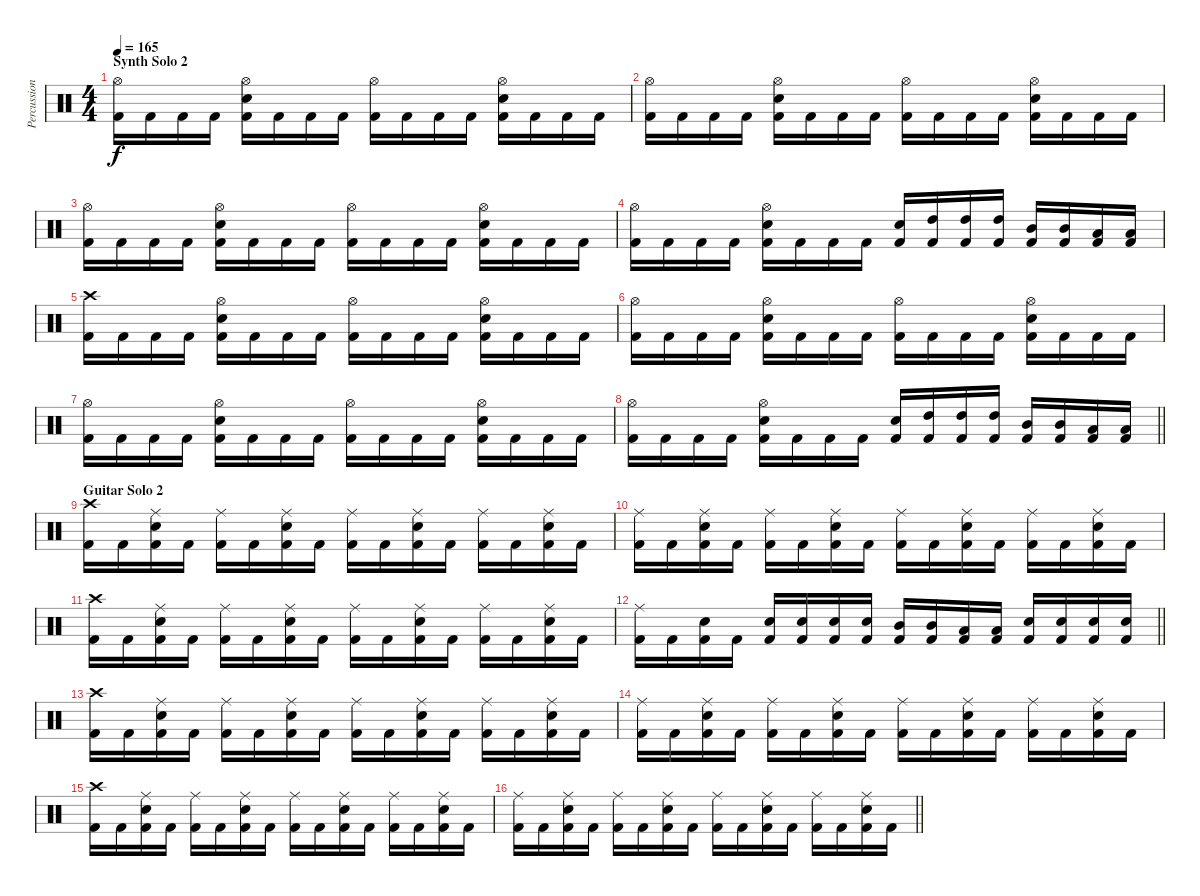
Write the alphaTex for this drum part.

\track ("Percussion" "Percussion") {instrument percussion}
\staff {score}
\articulation defaults
\ts (4 4)
\section ("" "Synth Solo 2")
\tempo 165
\clef neutral
\ks c
("Hi-Hat (open)" "Kick (hit) 2").16{dy f} "Kick (hit) 2".16 "Kick (hit) 2".16 "Kick (hit) 2".16 ("Hi-Hat (open)" "Snare (hit) 2" "Kick (hit) 2").16 "Kick (hit) 2".16 "Kick (hit) 2".16 "Kick (hit) 2".16 ("Hi-Hat (open)" "Kick (hit) 2").16 "Kick (hit) 2".16 "Kick (hit) 2".16 "Kick (hit) 2".16 ("Hi-Hat (open)" "Snare (hit) 2" "Kick (hit) 2").16 "Kick (hit) 2".16 "Kick (hit) 2".16 "Kick (hit) 2".16 |
("Hi-Hat (open)" "Kick (hit) 2").16 "Kick (hit) 2".16 "Kick (hit) 2".16 "Kick (hit) 2".16 ("Hi-Hat (open)" "Snare (hit) 2" "Kick (hit) 2").16 "Kick (hit) 2".16 "Kick (hit) 2".16 "Kick (hit) 2".16 ("Hi-Hat (open)" "Kick (hit) 2").16 "Kick (hit) 2".16 "Kick (hit) 2".16 "Kick (hit) 2".16 ("Hi-Hat (open)" "Snare (hit) 2" "Kick (hit) 2").16 "Kick (hit) 2".16 "Kick (hit) 2".16 "Kick (hit) 2".16 |
("Hi-Hat (open)" "Kick (hit) 2").16 "Kick (hit) 2".16 "Kick (hit) 2".16 "Kick (hit) 2".16 ("Hi-Hat (open)" "Snare (hit) 2" "Kick (hit) 2").16 "Kick (hit) 2".16 "Kick (hit) 2".16 "Kick (hit) 2".16 ("Hi-Hat (open)" "Kick (hit) 2").16 "Kick (hit) 2".16 "Kick (hit) 2".16 "Kick (hit) 2".16 ("Hi-Hat (open)" "Snare (hit) 2" "Kick (hit) 2").16 "Kick (hit) 2".16 "Kick (hit) 2".16 "Kick (hit) 2".16 |
("Hi-Hat (open)" "Kick (hit) 2").16 "Kick (hit) 2".16 "Kick (hit) 2".16 "Kick (hit) 2".16 ("Hi-Hat (open)" "Snare (hit) 2" "Kick (hit) 2").16 "Kick (hit) 2".16 "Kick (hit) 2".16 "Kick (hit) 2".16 ("Snare (hit) 2" "Kick (hit) 2").16 ("High Tom (hit)" "Kick (hit) 2").16 ("High Tom (hit)" "Kick (hit) 2").16 ("High Tom (hit)" "Kick (hit) 2").16 ("Mid Tom (hit)" "Kick (hit) 2").16 ("Mid Tom (hit)" "Kick (hit) 2").16 ("Low Tom (hit)" "Kick (hit) 2").16 ("Low Tom (hit)" "Kick (hit) 2").16 |
("Crash high (hit)" "Kick (hit) 2").16 "Kick (hit) 2".16 "Kick (hit) 2".16 "Kick (hit) 2".16 ("Hi-Hat (open)" "Snare (hit) 2" "Kick (hit) 2").16 "Kick (hit) 2".16 "Kick (hit) 2".16 "Kick (hit) 2".16 ("Hi-Hat (open)" "Kick (hit) 2").16 "Kick (hit) 2".16 "Kick (hit) 2".16 "Kick (hit) 2".16 ("Hi-Hat (open)" "Snare (hit) 2" "Kick (hit) 2").16 "Kick (hit) 2".16 "Kick (hit) 2".16 "Kick (hit) 2".16 |
("Hi-Hat (open)" "Kick (hit) 2").16 "Kick (hit) 2".16 "Kick (hit) 2".16 "Kick (hit) 2".16 ("Hi-Hat (open)" "Snare (hit) 2" "Kick (hit) 2").16 "Kick (hit) 2".16 "Kick (hit) 2".16 "Kick (hit) 2".16 ("Hi-Hat (open)" "Kick (hit) 2").16 "Kick (hit) 2".16 "Kick (hit) 2".16 "Kick (hit) 2".16 ("Hi-Hat (open)" "Snare (hit) 2" "Kick (hit) 2").16 "Kick (hit) 2".16 "Kick (hit) 2".16 "Kick (hit) 2".16 |
("Hi-Hat (open)" "Kick (hit) 2").16 "Kick (hit) 2".16 "Kick (hit) 2".16 "Kick (hit) 2".16 ("Hi-Hat (open)" "Snare (hit) 2" "Kick (hit) 2").16 "Kick (hit) 2".16 "Kick (hit) 2".16 "Kick (hit) 2".16 ("Hi-Hat (open)" "Kick (hit) 2").16 "Kick (hit) 2".16 "Kick (hit) 2".16 "Kick (hit) 2".16 ("Hi-Hat (open)" "Snare (hit) 2" "Kick (hit) 2").16 "Kick (hit) 2".16 "Kick (hit) 2".16 "Kick (hit) 2".16 |
\barLineRight lightlight
("Hi-Hat (open)" "Kick (hit) 2").16 "Kick (hit) 2".16 "Kick (hit) 2".16 "Kick (hit) 2".16 ("Hi-Hat (open)" "Snare (hit) 2" "Kick (hit) 2").16 "Kick (hit) 2".16 "Kick (hit) 2".16 "Kick (hit) 2".16 ("Snare (hit) 2" "Kick (hit) 2").16 ("High Tom (hit)" "Kick (hit) 2").16 ("High Tom (hit)" "Kick (hit) 2").16 ("High Tom (hit)" "Kick (hit) 2").16 ("Mid Tom (hit)" "Kick (hit) 2").16 ("Mid Tom (hit)" "Kick (hit) 2").16 ("Low Tom (hit)" "Kick (hit) 2").16 ("Low Tom (hit)" "Kick (hit) 2").16 |
\section ("" "Guitar Solo 2")
("Crash high (hit)" "Kick (hit) 2").16 "Kick (hit) 2".16 ("Ride (middle)" "Snare (hit) 2" "Kick (hit) 2").16 "Kick (hit) 2".16 ("Ride (middle)" "Kick (hit) 2").16 "Kick (hit) 2".16 ("Ride (middle)" "Snare (hit) 2" "Kick (hit) 2").16 "Kick (hit) 2".16 ("Ride (middle)" "Kick (hit) 2").16 "Kick (hit) 2".16 ("Ride (middle)" "Snare (hit) 2" "Kick (hit) 2").16 "Kick (hit) 2".16 ("Ride (middle)" "Kick (hit) 2").16 "Kick (hit) 2".16 ("Ride (middle)" "Snare (hit) 2" "Kick (hit) 2").16 "Kick (hit) 2".16 |
("Ride (middle)" "Kick (hit) 2").16 "Kick (hit) 2".16 ("Ride (middle)" "Snare (hit) 2" "Kick (hit) 2").16 "Kick (hit) 2".16 ("Ride (middle)" "Kick (hit) 2").16 "Kick (hit) 2".16 ("Ride (middle)" "Snare (hit) 2" "Kick (hit) 2").16 "Kick (hit) 2".16 ("Ride (middle)" "Kick (hit) 2").16 "Kick (hit) 2".16 ("Ride (middle)" "Snare (hit) 2" "Kick (hit) 2").16 "Kick (hit) 2".16 ("Ride (middle)" "Kick (hit) 2").16 "Kick (hit) 2".16 ("Ride (middle)" "Snare (hit) 2" "Kick (hit) 2").16 "Kick (hit) 2".16 |
("Crash high (hit)" "Kick (hit) 2").16 "Kick (hit) 2".16 ("Ride (middle)" "Snare (hit) 2" "Kick (hit) 2").16 "Kick (hit) 2".16 ("Ride (middle)" "Kick (hit) 2").16 "Kick (hit) 2".16 ("Ride (middle)" "Snare (hit) 2" "Kick (hit) 2").16 "Kick (hit) 2".16 ("Ride (middle)" "Kick (hit) 2").16 "Kick (hit) 2".16 ("Ride (middle)" "Snare (hit) 2" "Kick (hit) 2").16 "Kick (hit) 2".16 ("Ride (middle)" "Kick (hit) 2").16 "Kick (hit) 2".16 ("Ride (middle)" "Snare (hit) 2" "Kick (hit) 2").16 "Kick (hit) 2".16 |
\barLineRight lightlight
("Ride (middle)" "Kick (hit) 2").16 "Kick (hit) 2".16 ("Snare (hit) 2" "Kick (hit) 2").16 "Kick (hit) 2".16 ("Snare (hit) 2" "Kick (hit) 2").16 ("Snare (hit) 2" "Kick (hit) 2").16 ("Snare (hit) 2" "Kick (hit) 2").16 ("Snare (hit) 2" "Kick (hit) 2").16 ("Mid Tom (hit)" "Kick (hit) 2").16 ("Mid Tom (hit)" "Kick (hit) 2").16 ("Low Tom (hit)" "Kick (hit) 2").16 ("Low Tom (hit)" "Kick (hit) 2").16 ("Snare (hit) 2" "Kick (hit) 2").16 ("Snare (hit) 2" "Kick (hit) 2").16 ("Snare (hit) 2" "Kick (hit) 2").16 ("Snare (hit) 2" "Kick (hit) 2").16 |
("Crash high (hit)" "Kick (hit) 2").16 "Kick (hit) 2".16 ("Ride (middle)" "Snare (hit) 2" "Kick (hit) 2").16 "Kick (hit) 2".16 ("Ride (middle)" "Kick (hit) 2").16 "Kick (hit) 2".16 ("Ride (middle)" "Snare (hit) 2" "Kick (hit) 2").16 "Kick (hit) 2".16 ("Ride (middle)" "Kick (hit) 2").16 "Kick (hit) 2".16 ("Ride (middle)" "Snare (hit) 2" "Kick (hit) 2").16 "Kick (hit) 2".16 ("Ride (middle)" "Kick (hit) 2").16 "Kick (hit) 2".16 ("Ride (middle)" "Snare (hit) 2" "Kick (hit) 2").16 "Kick (hit) 2".16 |
("Ride (middle)" "Kick (hit) 2").16 "Kick (hit) 2".16 ("Ride (middle)" "Snare (hit) 2" "Kick (hit) 2").16 "Kick (hit) 2".16 ("Ride (middle)" "Kick (hit) 2").16 "Kick (hit) 2".16 ("Ride (middle)" "Snare (hit) 2" "Kick (hit) 2").16 "Kick (hit) 2".16 ("Ride (middle)" "Kick (hit) 2").16 "Kick (hit) 2".16 ("Ride (middle)" "Snare (hit) 2" "Kick (hit) 2").16 "Kick (hit) 2".16 ("Ride (middle)" "Kick (hit) 2").16 "Kick (hit) 2".16 ("Ride (middle)" "Snare (hit) 2" "Kick (hit) 2").16 "Kick (hit) 2".16 |
("Crash high (hit)" "Kick (hit) 2").16 "Kick (hit) 2".16 ("Ride (middle)" "Snare (hit) 2" "Kick (hit) 2").16 "Kick (hit) 2".16 ("Ride (middle)" "Kick (hit) 2").16 "Kick (hit) 2".16 ("Ride (middle)" "Snare (hit) 2" "Kick (hit) 2").16 "Kick (hit) 2".16 ("Ride (middle)" "Kick (hit) 2").16 "Kick (hit) 2".16 ("Ride (middle)" "Snare (hit) 2" "Kick (hit) 2").16 "Kick (hit) 2".16 ("Ride (middle)" "Kick (hit) 2").16 "Kick (hit) 2".16 ("Ride (middle)" "Snare (hit) 2" "Kick (hit) 2").16 "Kick (hit) 2".16 |
\barLineRight lightlight
("Ride (middle)" "Kick (hit) 2").16 "Kick (hit) 2".16 ("Ride (middle)" "Snare (hit) 2" "Kick (hit) 2").16 "Kick (hit) 2".16 ("Ride (middle)" "Kick (hit) 2").16 "Kick (hit) 2".16 ("Ride (middle)" "Snare (hit) 2" "Kick (hit) 2").16 "Kick (hit) 2".16 ("Ride (middle)" "Kick (hit) 2").16 "Kick (hit) 2".16 ("Ride (middle)" "Snare (hit) 2" "Kick (hit) 2").16 "Kick (hit) 2".16 ("Ride (middle)" "Kick (hit) 2").16 "Kick (hit) 2".16 ("Ride (middle)" "Snare (hit) 2" "Kick (hit) 2").16 "Kick (hit) 2".16
